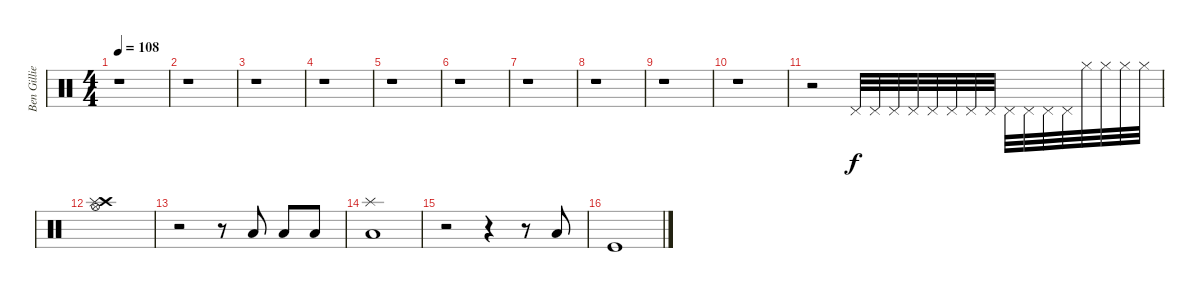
\track ("Ben Gillies (percus)" "Ben Gillie") {instrument percussion}
\staff {score}
\articulation defaults
\ts (4 4)
\tempo 108
\clef neutral
\ks c
r.1{dy f} |
r.1 |
r.1 |
r.1 |
r.1 |
r.1 |
r.1 |
r.1 |
r.1 |
r.1 |
r.2 "Pedal Hi-Hat (hit)".32 "Pedal Hi-Hat (hit)".32 "Pedal Hi-Hat (hit)".32 "Pedal Hi-Hat (hit)".32 "Pedal Hi-Hat (hit)".32 "Pedal Hi-Hat (hit)".32 "Pedal Hi-Hat (hit)".32 "Pedal Hi-Hat (hit)".32 "Pedal Hi-Hat (hit)".32 "Pedal Hi-Hat (hit)".32 "Pedal Hi-Hat (hit)".32 "Pedal Hi-Hat (hit)".32 "Hi-Hat (closed)".32 "Hi-Hat (closed)".32 "Hi-Hat (closed)".32 "Hi-Hat (closed)".32 |
("Crash high (hit)" "Splash (hit)" "Hi-Hat (open)").1 |
r.2 r.8 "Low Floor Tom (hit)".8 "Low Floor Tom (hit)".8 "Low Floor Tom (hit)".8 |
("Splash (hit)" "Low Floor Tom (hit)").1 |
r.2 r.4 r.8 "Low Floor Tom (hit)".8 |
"Kick (hit)".1
